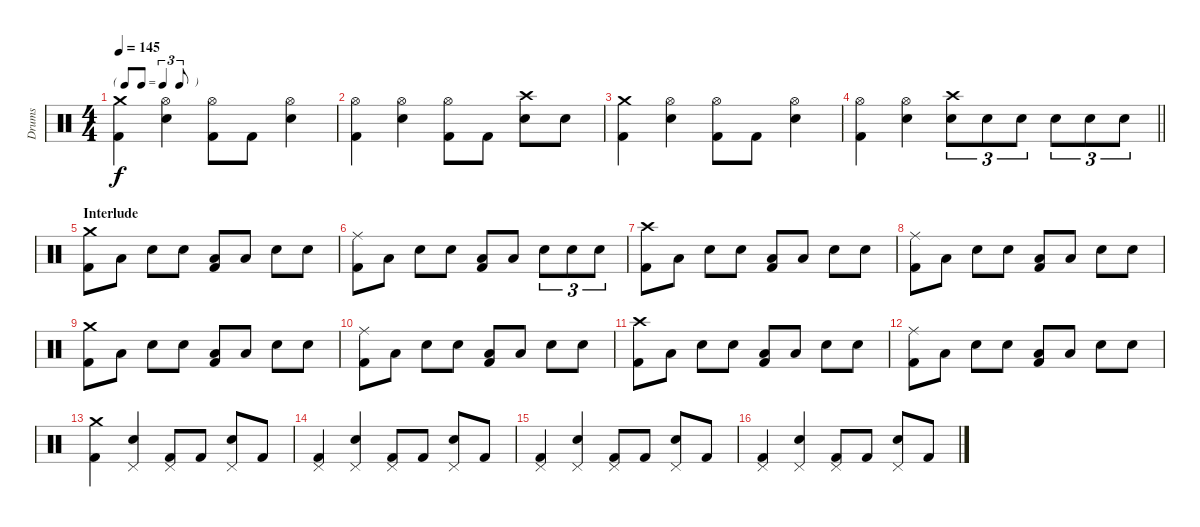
\track ("Drums" "Drums") {instrument percussion}
\staff {score}
\articulation defaults
\ts (4 4)
\tf triplet8th
\tempo 145
\clef neutral
\ks c
("Crash medium (hit)" "Kick (hit) 2").4{dy f} ("Hi-Hat (open)" "Electric Snare (hit)").4 ("Hi-Hat (open)" "Kick (hit) 2").8 "Kick (hit) 2".8 ("Hi-Hat (open)" "Electric Snare (hit)").4 |
("Hi-Hat (open)" "Kick (hit) 2").4 ("Hi-Hat (open)" "Electric Snare (hit)").4 ("Hi-Hat (open)" "Kick (hit) 2").8 "Kick (hit) 2".8 ("Crash high (hit)" "Electric Snare (hit)").8 "Electric Snare (hit)".8 |
("Crash medium (hit)" "Kick (hit) 2").4 ("Hi-Hat (open)" "Electric Snare (hit)").4 ("Hi-Hat (open)" "Kick (hit) 2").8 "Kick (hit) 2".8 ("Hi-Hat (open)" "Electric Snare (hit)").4 |
\barLineRight lightlight
("Hi-Hat (open)" "Kick (hit) 2").4 ("Hi-Hat (open)" "Electric Snare (hit)").4 ("Crash high (hit)" "Electric Snare (hit)").8{tu (3 2)} "Electric Snare (hit)".8{tu (3 2)} "Electric Snare (hit)".8{tu (3 2)} "Electric Snare (hit)".8{tu (3 2)} "Electric Snare (hit)".8{tu (3 2)} "Electric Snare (hit)".8{tu (3 2)} |
\section ("" "Interlude")
("Crash medium (hit)" "Kick (hit) 2").8 "Low Floor Tom (hit)".8 "Electric Snare (hit)".8 "Electric Snare (hit)".8 ("Low Floor Tom (hit)" "Kick (hit) 2").8 "Low Floor Tom (hit)".8 "Electric Snare (hit)".8 "Electric Snare (hit)".8 |
("Ride (middle)" "Kick (hit) 2").8 "Low Floor Tom (hit)".8 "Electric Snare (hit)".8 "Electric Snare (hit)".8 ("Low Floor Tom (hit)" "Kick (hit) 2").8 "Low Floor Tom (hit)".8 "Electric Snare (hit)".8{tu (3 2)} "Electric Snare (hit)".8{tu (3 2)} "Electric Snare (hit)".8{tu (3 2)} |
("Crash high (hit)" "Kick (hit) 2").8 "Low Floor Tom (hit)".8 "Electric Snare (hit)".8 "Electric Snare (hit)".8 ("Low Floor Tom (hit)" "Kick (hit) 2").8 "Low Floor Tom (hit)".8 "Electric Snare (hit)".8 "Electric Snare (hit)".8 |
("Ride (middle)" "Kick (hit) 2").8 "Low Floor Tom (hit)".8 "Electric Snare (hit)".8 "Electric Snare (hit)".8 ("Low Floor Tom (hit)" "Kick (hit) 2").8 "Low Floor Tom (hit)".8 "Electric Snare (hit)".8 "Electric Snare (hit)".8 |
("Crash medium (hit)" "Kick (hit) 2").8 "Low Floor Tom (hit)".8 "Electric Snare (hit)".8 "Electric Snare (hit)".8 ("Low Floor Tom (hit)" "Kick (hit) 2").8 "Low Floor Tom (hit)".8 "Electric Snare (hit)".8 "Electric Snare (hit)".8 |
("Ride (middle)" "Kick (hit) 2").8 "Low Floor Tom (hit)".8 "Electric Snare (hit)".8 "Electric Snare (hit)".8 ("Low Floor Tom (hit)" "Kick (hit) 2").8 "Low Floor Tom (hit)".8 "Electric Snare (hit)".8 "Electric Snare (hit)".8 |
("Crash high (hit)" "Kick (hit) 2").8 "Low Floor Tom (hit)".8 "Electric Snare (hit)".8 "Electric Snare (hit)".8 ("Low Floor Tom (hit)" "Kick (hit) 2").8 "Low Floor Tom (hit)".8 "Electric Snare (hit)".8 "Electric Snare (hit)".8 |
("Ride (middle)" "Kick (hit) 2").8 "Low Floor Tom (hit)".8 "Electric Snare (hit)".8 "Electric Snare (hit)".8 ("Low Floor Tom (hit)" "Kick (hit) 2").8 "Low Floor Tom (hit)".8 "Electric Snare (hit)".8 "Electric Snare (hit)".8 |
("Crash medium (hit)" "Kick (hit) 2").4 ("Pedal Hi-Hat (hit)" "Electric Snare (hit)").4 ("Pedal Hi-Hat (hit)" "Kick (hit) 2").8 "Kick (hit) 2".8 ("Pedal Hi-Hat (hit)" "Electric Snare (hit)").8 "Kick (hit) 2".8 |
("Pedal Hi-Hat (hit)" "Kick (hit) 2").4 ("Pedal Hi-Hat (hit)" "Electric Snare (hit)").4 ("Pedal Hi-Hat (hit)" "Kick (hit) 2").8 "Kick (hit) 2".8 ("Pedal Hi-Hat (hit)" "Electric Snare (hit)").8 "Kick (hit) 2".8 |
("Pedal Hi-Hat (hit)" "Kick (hit) 2").4 ("Pedal Hi-Hat (hit)" "Electric Snare (hit)").4 ("Pedal Hi-Hat (hit)" "Kick (hit) 2").8 "Kick (hit) 2".8 ("Pedal Hi-Hat (hit)" "Electric Snare (hit)").8 "Kick (hit) 2".8 |
("Pedal Hi-Hat (hit)" "Kick (hit) 2").4 ("Pedal Hi-Hat (hit)" "Electric Snare (hit)").4 ("Pedal Hi-Hat (hit)" "Kick (hit) 2").8 "Kick (hit) 2".8 ("Pedal Hi-Hat (hit)" "Electric Snare (hit)").8 "Kick (hit) 2".8
